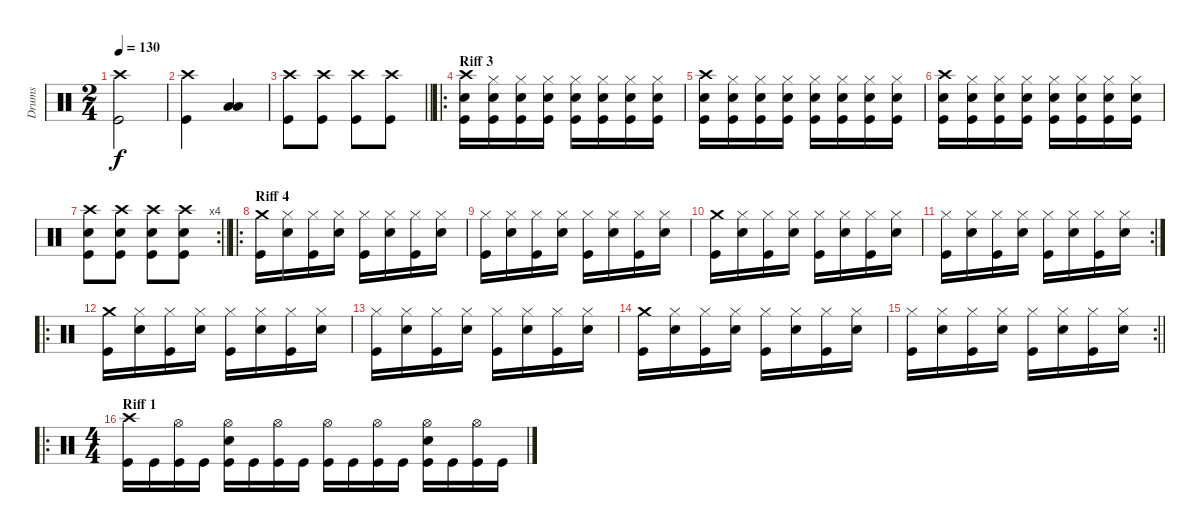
\track ("Drums" "Drums") {instrument percussion}
\staff {score}
\articulation defaults
\ts (2 4)
\tempo 130
\clef neutral
\ks c
("Crash high (hit)" "Kick (hit)").2{dy f} |
("Crash high (hit)" "Kick (hit)").4 ("Low Floor Tom (hit)" "Low Floor Tom (hit)").4 |
\barLineRight lightlight
("Crash high (hit)" "Kick (hit)").8 ("Crash high (hit)" "Kick (hit)").8 ("Crash high (hit)" "Kick (hit)").8 ("Crash high (hit)" "Kick (hit)").8 |
\ro
\section ("" "Riff 3")
("Crash high (hit)" "Snare (hit) 2" "Kick (hit)").16 ("Hi-Hat (closed)" "Snare (hit) 2" "Kick (hit)").16 ("Hi-Hat (closed)" "Snare (hit) 2" "Kick (hit)").16 ("Hi-Hat (closed)" "Snare (hit) 2" "Kick (hit)").16 ("Hi-Hat (closed)" "Snare (hit) 2" "Kick (hit)").16 ("Hi-Hat (closed)" "Snare (hit) 2" "Kick (hit)").16 ("Hi-Hat (closed)" "Snare (hit) 2" "Kick (hit)").16 ("Hi-Hat (closed)" "Snare (hit) 2" "Kick (hit)").16 |
("Crash high (hit)" "Snare (hit) 2" "Kick (hit)").16 ("Hi-Hat (closed)" "Snare (hit) 2" "Kick (hit)").16 ("Hi-Hat (closed)" "Snare (hit) 2" "Kick (hit)").16 ("Hi-Hat (closed)" "Snare (hit) 2" "Kick (hit)").16 ("Hi-Hat (closed)" "Snare (hit) 2" "Kick (hit)").16 ("Hi-Hat (closed)" "Snare (hit) 2" "Kick (hit)").16 ("Hi-Hat (closed)" "Snare (hit) 2" "Kick (hit)").16 ("Hi-Hat (closed)" "Snare (hit) 2" "Kick (hit)").16 |
("Crash high (hit)" "Snare (hit) 2" "Kick (hit)").16 ("Hi-Hat (closed)" "Snare (hit) 2" "Kick (hit)").16 ("Hi-Hat (closed)" "Snare (hit) 2" "Kick (hit)").16 ("Hi-Hat (closed)" "Snare (hit) 2" "Kick (hit)").16 ("Hi-Hat (closed)" "Snare (hit) 2" "Kick (hit)").16 ("Hi-Hat (closed)" "Snare (hit) 2" "Kick (hit)").16 ("Hi-Hat (closed)" "Snare (hit) 2" "Kick (hit)").16 ("Hi-Hat (closed)" "Snare (hit) 2" "Kick (hit)").16 |
\rc 4
\barLineRight lightlight
("Crash high (hit)" "Snare (hit) 2" "Kick (hit)").8 ("Crash high (hit)" "Snare (hit) 2" "Kick (hit)").8 ("Crash high (hit)" "Snare (hit) 2" "Kick (hit)").8 ("Crash high (hit)" "Snare (hit) 2" "Kick (hit)").8 |
\ro
\section ("" "Riff 4")
("Crash medium (hit)" "Kick (hit)").16 ("Hi-Hat (closed)" "Snare (hit) 2").16 ("Hi-Hat (closed)" "Kick (hit)").16 ("Hi-Hat (closed)" "Snare (hit) 2").16 ("Hi-Hat (closed)" "Kick (hit)").16 ("Hi-Hat (closed)" "Snare (hit) 2").16 ("Hi-Hat (closed)" "Kick (hit)").16 ("Hi-Hat (closed)" "Snare (hit) 2").16 |
("Hi-Hat (closed)" "Kick (hit)").16 ("Hi-Hat (closed)" "Snare (hit) 2").16 ("Hi-Hat (closed)" "Kick (hit)").16 ("Hi-Hat (closed)" "Snare (hit) 2").16 ("Hi-Hat (closed)" "Kick (hit)").16 ("Hi-Hat (closed)" "Snare (hit) 2").16 ("Hi-Hat (closed)" "Kick (hit)").16 ("Hi-Hat (closed)" "Snare (hit) 2").16 |
("Crash medium (hit)" "Kick (hit)").16 ("Hi-Hat (closed)" "Snare (hit) 2").16 ("Hi-Hat (closed)" "Kick (hit)").16 ("Hi-Hat (closed)" "Snare (hit) 2").16 ("Hi-Hat (closed)" "Kick (hit)").16 ("Hi-Hat (closed)" "Snare (hit) 2").16 ("Hi-Hat (closed)" "Kick (hit)").16 ("Hi-Hat (closed)" "Snare (hit) 2").16 |
\rc 2
("Hi-Hat (closed)" "Kick (hit)").16 ("Hi-Hat (closed)" "Snare (hit) 2").16 ("Hi-Hat (closed)" "Kick (hit)").16 ("Hi-Hat (closed)" "Snare (hit) 2").16 ("Hi-Hat (closed)" "Kick (hit)").16 ("Hi-Hat (closed)" "Snare (hit) 2").16 ("Hi-Hat (closed)" "Kick (hit)").16 ("Hi-Hat (closed)" "Snare (hit) 2").16 |
\ro
("Crash medium (hit)" "Kick (hit)").16 ("Hi-Hat (closed)" "Snare (hit) 2").16 ("Hi-Hat (closed)" "Kick (hit)").16 ("Hi-Hat (closed)" "Snare (hit) 2").16 ("Hi-Hat (closed)" "Kick (hit)").16 ("Hi-Hat (closed)" "Snare (hit) 2").16 ("Hi-Hat (closed)" "Kick (hit)").16 ("Hi-Hat (closed)" "Snare (hit) 2").16 |
("Hi-Hat (closed)" "Kick (hit)").16 ("Hi-Hat (closed)" "Snare (hit) 2").16 ("Hi-Hat (closed)" "Kick (hit)").16 ("Hi-Hat (closed)" "Snare (hit) 2").16 ("Hi-Hat (closed)" "Kick (hit)").16 ("Hi-Hat (closed)" "Snare (hit) 2").16 ("Hi-Hat (closed)" "Kick (hit)").16 ("Hi-Hat (closed)" "Snare (hit) 2").16 |
("Crash medium (hit)" "Kick (hit)").16 ("Hi-Hat (closed)" "Snare (hit) 2").16 ("Hi-Hat (closed)" "Kick (hit)").16 ("Hi-Hat (closed)" "Snare (hit) 2").16 ("Hi-Hat (closed)" "Kick (hit)").16 ("Hi-Hat (closed)" "Snare (hit) 2").16 ("Hi-Hat (closed)" "Kick (hit)").16 ("Hi-Hat (closed)" "Snare (hit) 2").16 |
\rc 2
\barLineRight lightlight
("Hi-Hat (closed)" "Kick (hit)").16 ("Hi-Hat (closed)" "Snare (hit) 2").16 ("Hi-Hat (closed)" "Kick (hit)").16 ("Hi-Hat (closed)" "Snare (hit) 2").16 ("Hi-Hat (closed)" "Kick (hit)").16 ("Hi-Hat (closed)" "Snare (hit) 2").16 ("Hi-Hat (closed)" "Kick (hit)").16 ("Hi-Hat (closed)" "Snare (hit) 2").16 |
\ro
\ts (4 4)
\section ("" "Riff 1")
("Crash high (hit)" "Kick (hit)").16 "Kick (hit)".16 ("Hi-Hat (open)" "Kick (hit)").16 "Kick (hit)".16 ("Hi-Hat (open)" "Snare (hit) 2" "Kick (hit)").16 "Kick (hit)".16 ("Hi-Hat (open)" "Kick (hit)").16 "Kick (hit)".16 ("Hi-Hat (open)" "Kick (hit)").16 "Kick (hit)".16 ("Hi-Hat (open)" "Kick (hit)").16 "Kick (hit)".16 ("Hi-Hat (open)" "Snare (hit) 2" "Kick (hit)").16 "Kick (hit)".16 ("Hi-Hat (open)" "Kick (hit)").16 "Kick (hit)".16
